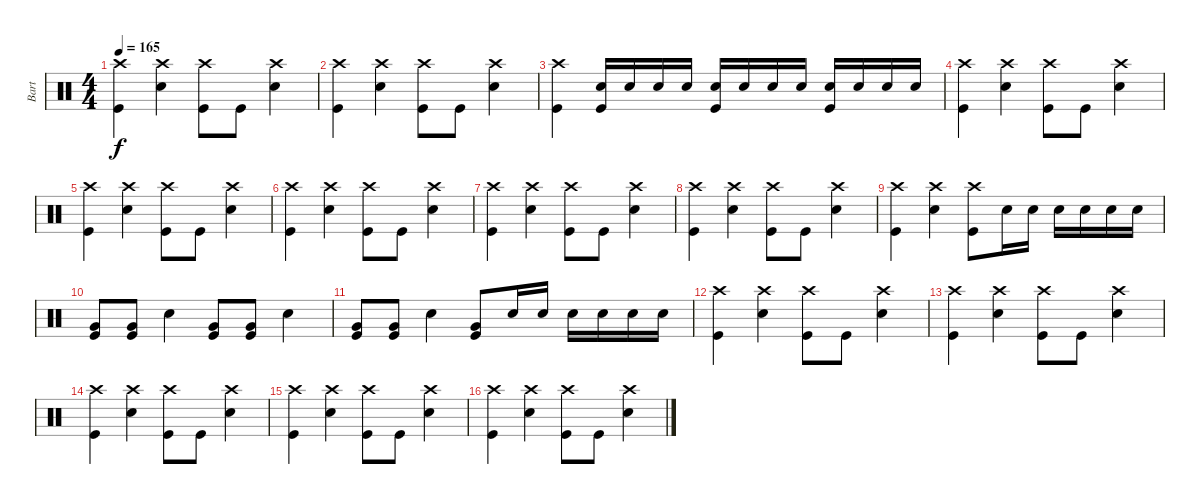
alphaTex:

\track ("Bart" "Bart") {instrument percussion}
\staff {score}
\articulation defaults
\ts (4 4)
\tempo 165
\clef neutral
\ks c
("Kick (hit)" "Crash high (hit)").4{dy f} ("Electric Snare (hit)" "Crash high (hit)").4 ("Kick (hit)" "Crash high (hit)").8 "Kick (hit)".8 ("Electric Snare (hit)" "Crash high (hit)").4 |
("Kick (hit)" "Crash high (hit)").4 ("Electric Snare (hit)" "Crash high (hit)").4 ("Kick (hit)" "Crash high (hit)").8 "Kick (hit)".8 ("Electric Snare (hit)" "Crash high (hit)").4 |
("Kick (hit)" "Crash high (hit)").4 ("Kick (hit)" "Electric Snare (hit)").16 "Electric Snare (hit)".16 "Electric Snare (hit)".16 "Electric Snare (hit)".16 ("Kick (hit)" "Electric Snare (hit)").16 "Electric Snare (hit)".16 "Electric Snare (hit)".16 "Electric Snare (hit)".16 ("Kick (hit)" "Electric Snare (hit)").16 "Electric Snare (hit)".16 "Electric Snare (hit)".16 "Electric Snare (hit)".16 |
("Kick (hit)" "Crash high (hit)").4 ("Electric Snare (hit)" "Crash high (hit)").4 ("Kick (hit)" "Crash high (hit)").8 "Kick (hit)".8 ("Electric Snare (hit)" "Crash high (hit)").4 |
("Kick (hit)" "Crash high (hit)").4 ("Electric Snare (hit)" "Crash high (hit)").4 ("Kick (hit)" "Crash high (hit)").8 "Kick (hit)".8 ("Electric Snare (hit)" "Crash high (hit)").4 |
("Kick (hit)" "Crash high (hit)").4 ("Electric Snare (hit)" "Crash high (hit)").4 ("Kick (hit)" "Crash high (hit)").8 "Kick (hit)".8 ("Electric Snare (hit)" "Crash high (hit)").4 |
("Kick (hit)" "Crash high (hit)").4 ("Electric Snare (hit)" "Crash high (hit)").4 ("Kick (hit)" "Crash high (hit)").8 "Kick (hit)".8 ("Electric Snare (hit)" "Crash high (hit)").4 |
("Kick (hit)" "Crash high (hit)").4 ("Electric Snare (hit)" "Crash high (hit)").4 ("Kick (hit)" "Crash high (hit)").8 "Kick (hit)".8 ("Electric Snare (hit)" "Crash high (hit)").4 |
("Kick (hit)" "Crash high (hit)").4 ("Electric Snare (hit)" "Crash high (hit)").4 ("Kick (hit)" "Crash high (hit)").8 "Electric Snare (hit)".16 "Electric Snare (hit)".16 "Electric Snare (hit)".16 "Electric Snare (hit)".16 "Electric Snare (hit)".16 "Electric Snare (hit)".16 |
("Kick (hit)" "Very Low Tom (hit)").8 ("Kick (hit)" "Very Low Tom (hit)").8 "Electric Snare (hit)".4 ("Kick (hit)" "Very Low Tom (hit)").8 ("Kick (hit)" "Very Low Tom (hit)").8 "Electric Snare (hit)".4 |
("Kick (hit)" "Very Low Tom (hit)").8 ("Kick (hit)" "Very Low Tom (hit)").8 "Electric Snare (hit)".4 ("Kick (hit)" "Very Low Tom (hit)").8 "Electric Snare (hit)".16 "Electric Snare (hit)".16 "Electric Snare (hit)".16 "Electric Snare (hit)".16 "Electric Snare (hit)".16 "Electric Snare (hit)".16 |
("Kick (hit)" "Crash high (hit)").4 ("Electric Snare (hit)" "Crash high (hit)").4 ("Kick (hit)" "Crash high (hit)").8 "Kick (hit)".8 ("Electric Snare (hit)" "Crash high (hit)").4 |
("Kick (hit)" "Crash high (hit)").4 ("Electric Snare (hit)" "Crash high (hit)").4 ("Kick (hit)" "Crash high (hit)").8 "Kick (hit)".8 ("Electric Snare (hit)" "Crash high (hit)").4 |
("Kick (hit)" "Crash high (hit)").4 ("Electric Snare (hit)" "Crash high (hit)").4 ("Kick (hit)" "Crash high (hit)").8 "Kick (hit)".8 ("Electric Snare (hit)" "Crash high (hit)").4 |
("Kick (hit)" "Crash high (hit)").4 ("Electric Snare (hit)" "Crash high (hit)").4 ("Kick (hit)" "Crash high (hit)").8 "Kick (hit)".8 ("Electric Snare (hit)" "Crash high (hit)").4 |
("Kick (hit)" "Crash high (hit)").4 ("Electric Snare (hit)" "Crash high (hit)").4 ("Kick (hit)" "Crash high (hit)").8 "Kick (hit)".8 ("Electric Snare (hit)" "Crash high (hit)").4
